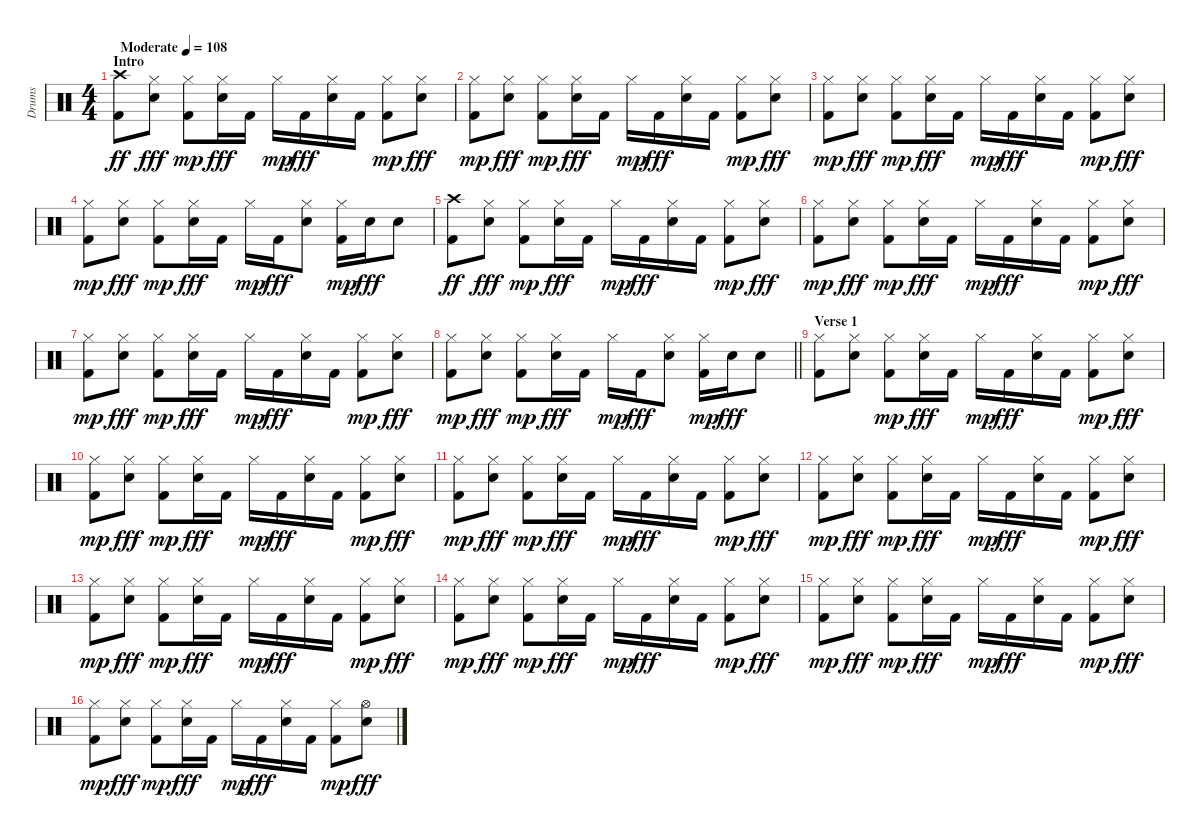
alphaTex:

\track ("Drums" "Drums") {instrument percussion}
\staff {score}
\articulation defaults
\ts (4 4)
\section ("" "Intro")
\tempo (108 "Moderate")
\clef neutral
\ks c
("Kick (hit) 2" "Crash high (hit)").8{dy ff} ("Snare (hit) 2" "Hi-Hat (closed)").8{dy fff} ("Kick (hit) 2" "Hi-Hat (closed)").8{dy mp} ("Snare (hit) 2" "Hi-Hat (closed)").16{dy fff} "Kick (hit) 2".16 "Hi-Hat (closed)".16{dy mp} "Kick (hit) 2".16{dy fff} ("Snare (hit) 2" "Hi-Hat (closed)").16 "Kick (hit) 2".16 ("Kick (hit) 2" "Hi-Hat (closed)").8{dy mp} ("Snare (hit) 2" "Hi-Hat (closed)").8{dy fff} |
("Kick (hit) 2" "Hi-Hat (closed)").8{dy mp} ("Snare (hit) 2" "Hi-Hat (closed)").8{dy fff} ("Kick (hit) 2" "Hi-Hat (closed)").8{dy mp} ("Snare (hit) 2" "Hi-Hat (closed)").16{dy fff} "Kick (hit) 2".16 "Hi-Hat (closed)".16{dy mp} "Kick (hit) 2".16{dy fff} ("Snare (hit) 2" "Hi-Hat (closed)").16 "Kick (hit) 2".16 ("Kick (hit) 2" "Hi-Hat (closed)").8{dy mp} ("Snare (hit) 2" "Hi-Hat (closed)").8{dy fff} |
("Kick (hit) 2" "Hi-Hat (closed)").8{dy mp} ("Snare (hit) 2" "Hi-Hat (closed)").8{dy fff} ("Kick (hit) 2" "Hi-Hat (closed)").8{dy mp} ("Snare (hit) 2" "Hi-Hat (closed)").16{dy fff} "Kick (hit) 2".16 "Hi-Hat (closed)".16{dy mp} "Kick (hit) 2".16{dy fff} ("Snare (hit) 2" "Hi-Hat (closed)").16 "Kick (hit) 2".16 ("Kick (hit) 2" "Hi-Hat (closed)").8{dy mp} ("Snare (hit) 2" "Hi-Hat (closed)").8{dy fff} |
("Kick (hit) 2" "Hi-Hat (closed)").8{dy mp} ("Snare (hit) 2" "Hi-Hat (closed)").8{dy fff} ("Kick (hit) 2" "Hi-Hat (closed)").8{dy mp} ("Snare (hit) 2" "Hi-Hat (closed)").16{dy fff} "Kick (hit) 2".16 "Hi-Hat (closed)".16{dy mp} "Kick (hit) 2".16{dy fff} ("Snare (hit) 2" "Hi-Hat (closed)").8 ("Kick (hit) 2" "Hi-Hat (closed)").16{dy mp} "Snare (hit) 2".16{dy fff} "Snare (hit) 2".8 |
("Kick (hit) 2" "Crash high (hit)").8{dy ff} ("Snare (hit) 2" "Hi-Hat (closed)").8{dy fff} ("Kick (hit) 2" "Hi-Hat (closed)").8{dy mp} ("Snare (hit) 2" "Hi-Hat (closed)").16{dy fff} "Kick (hit) 2".16 "Hi-Hat (closed)".16{dy mp} "Kick (hit) 2".16{dy fff} ("Snare (hit) 2" "Hi-Hat (closed)").16 "Kick (hit) 2".16 ("Kick (hit) 2" "Hi-Hat (closed)").8{dy mp} ("Snare (hit) 2" "Hi-Hat (closed)").8{dy fff} |
("Kick (hit) 2" "Hi-Hat (closed)").8{dy mp} ("Snare (hit) 2" "Hi-Hat (closed)").8{dy fff} ("Kick (hit) 2" "Hi-Hat (closed)").8{dy mp} ("Snare (hit) 2" "Hi-Hat (closed)").16{dy fff} "Kick (hit) 2".16 "Hi-Hat (closed)".16{dy mp} "Kick (hit) 2".16{dy fff} ("Snare (hit) 2" "Hi-Hat (closed)").16 "Kick (hit) 2".16 ("Kick (hit) 2" "Hi-Hat (closed)").8{dy mp} ("Snare (hit) 2" "Hi-Hat (closed)").8{dy fff} |
("Kick (hit) 2" "Hi-Hat (closed)").8{dy mp} ("Snare (hit) 2" "Hi-Hat (closed)").8{dy fff} ("Kick (hit) 2" "Hi-Hat (closed)").8{dy mp} ("Snare (hit) 2" "Hi-Hat (closed)").16{dy fff} "Kick (hit) 2".16 "Hi-Hat (closed)".16{dy mp} "Kick (hit) 2".16{dy fff} ("Snare (hit) 2" "Hi-Hat (closed)").16 "Kick (hit) 2".16 ("Kick (hit) 2" "Hi-Hat (closed)").8{dy mp} ("Snare (hit) 2" "Hi-Hat (closed)").8{dy fff} |
\barLineRight lightlight
("Kick (hit) 2" "Hi-Hat (closed)").8{dy mp} ("Snare (hit) 2" "Hi-Hat (closed)").8{dy fff} ("Kick (hit) 2" "Hi-Hat (closed)").8{dy mp} ("Snare (hit) 2" "Hi-Hat (closed)").16{dy fff} "Kick (hit) 2".16 "Hi-Hat (closed)".16{dy mp} "Kick (hit) 2".16{dy fff} ("Snare (hit) 2" "Hi-Hat (closed)").8 ("Kick (hit) 2" "Hi-Hat (closed)").16{dy mp} "Snare (hit) 2".16{dy fff} "Snare (hit) 2".8 |
\section ("" "Verse 1")
("Kick (hit) 2" "Hi-Hat (closed)").8 ("Snare (hit) 2" "Hi-Hat (closed)").8 ("Kick (hit) 2" "Hi-Hat (closed)").8{dy mp} ("Snare (hit) 2" "Hi-Hat (closed)").16{dy fff} "Kick (hit) 2".16 "Hi-Hat (closed)".16{dy mp} "Kick (hit) 2".16{dy fff} ("Snare (hit) 2" "Hi-Hat (closed)").16 "Kick (hit) 2".16 ("Kick (hit) 2" "Hi-Hat (closed)").8{dy mp} ("Snare (hit) 2" "Hi-Hat (closed)").8{dy fff} |
("Kick (hit) 2" "Hi-Hat (closed)").8{dy mp} ("Snare (hit) 2" "Hi-Hat (closed)").8{dy fff} ("Kick (hit) 2" "Hi-Hat (closed)").8{dy mp} ("Snare (hit) 2" "Hi-Hat (closed)").16{dy fff} "Kick (hit) 2".16 "Hi-Hat (closed)".16{dy mp} "Kick (hit) 2".16{dy fff} ("Snare (hit) 2" "Hi-Hat (closed)").16 "Kick (hit) 2".16 ("Kick (hit) 2" "Hi-Hat (closed)").8{dy mp} ("Snare (hit) 2" "Hi-Hat (closed)").8{dy fff} |
("Kick (hit) 2" "Hi-Hat (closed)").8{dy mp} ("Snare (hit) 2" "Hi-Hat (closed)").8{dy fff} ("Kick (hit) 2" "Hi-Hat (closed)").8{dy mp} ("Snare (hit) 2" "Hi-Hat (closed)").16{dy fff} "Kick (hit) 2".16 "Hi-Hat (closed)".16{dy mp} "Kick (hit) 2".16{dy fff} ("Snare (hit) 2" "Hi-Hat (closed)").16 "Kick (hit) 2".16 ("Kick (hit) 2" "Hi-Hat (closed)").8{dy mp} ("Snare (hit) 2" "Hi-Hat (closed)").8{dy fff} |
("Kick (hit) 2" "Hi-Hat (closed)").8{dy mp} ("Snare (hit) 2" "Hi-Hat (closed)").8{dy fff} ("Kick (hit) 2" "Hi-Hat (closed)").8{dy mp} ("Snare (hit) 2" "Hi-Hat (closed)").16{dy fff} "Kick (hit) 2".16 "Hi-Hat (closed)".16{dy mp} "Kick (hit) 2".16{dy fff} ("Snare (hit) 2" "Hi-Hat (closed)").16 "Kick (hit) 2".16 ("Kick (hit) 2" "Hi-Hat (closed)").8{dy mp} ("Snare (hit) 2" "Hi-Hat (closed)").8{dy fff} |
("Kick (hit) 2" "Hi-Hat (closed)").8{dy mp} ("Snare (hit) 2" "Hi-Hat (closed)").8{dy fff} ("Kick (hit) 2" "Hi-Hat (closed)").8{dy mp} ("Snare (hit) 2" "Hi-Hat (closed)").16{dy fff} "Kick (hit) 2".16 "Hi-Hat (closed)".16{dy mp} "Kick (hit) 2".16{dy fff} ("Snare (hit) 2" "Hi-Hat (closed)").16 "Kick (hit) 2".16 ("Kick (hit) 2" "Hi-Hat (closed)").8{dy mp} ("Snare (hit) 2" "Hi-Hat (closed)").8{dy fff} |
("Kick (hit) 2" "Hi-Hat (closed)").8{dy mp} ("Snare (hit) 2" "Hi-Hat (closed)").8{dy fff} ("Kick (hit) 2" "Hi-Hat (closed)").8{dy mp} ("Snare (hit) 2" "Hi-Hat (closed)").16{dy fff} "Kick (hit) 2".16 "Hi-Hat (closed)".16{dy mp} "Kick (hit) 2".16{dy fff} ("Snare (hit) 2" "Hi-Hat (closed)").16 "Kick (hit) 2".16 ("Kick (hit) 2" "Hi-Hat (closed)").8{dy mp} ("Snare (hit) 2" "Hi-Hat (closed)").8{dy fff} |
("Kick (hit) 2" "Hi-Hat (closed)").8{dy mp} ("Snare (hit) 2" "Hi-Hat (closed)").8{dy fff} ("Kick (hit) 2" "Hi-Hat (closed)").8{dy mp} ("Snare (hit) 2" "Hi-Hat (closed)").16{dy fff} "Kick (hit) 2".16 "Hi-Hat (closed)".16{dy mp} "Kick (hit) 2".16{dy fff} ("Snare (hit) 2" "Hi-Hat (closed)").16 "Kick (hit) 2".16 ("Kick (hit) 2" "Hi-Hat (closed)").8{dy mp} ("Snare (hit) 2" "Hi-Hat (closed)").8{dy fff} |
("Kick (hit) 2" "Hi-Hat (closed)").8{dy mp} ("Snare (hit) 2" "Hi-Hat (closed)").8{dy fff} ("Kick (hit) 2" "Hi-Hat (closed)").8{dy mp} ("Snare (hit) 2" "Hi-Hat (closed)").16{dy fff} "Kick (hit) 2".16 "Hi-Hat (closed)".16{dy mp} "Kick (hit) 2".16{dy fff} ("Snare (hit) 2" "Hi-Hat (closed)").16 "Kick (hit) 2".16 ("Kick (hit) 2" "Hi-Hat (closed)").8{dy mp} ("Snare (hit) 2" "Hi-Hat (open)").8{dy fff}
